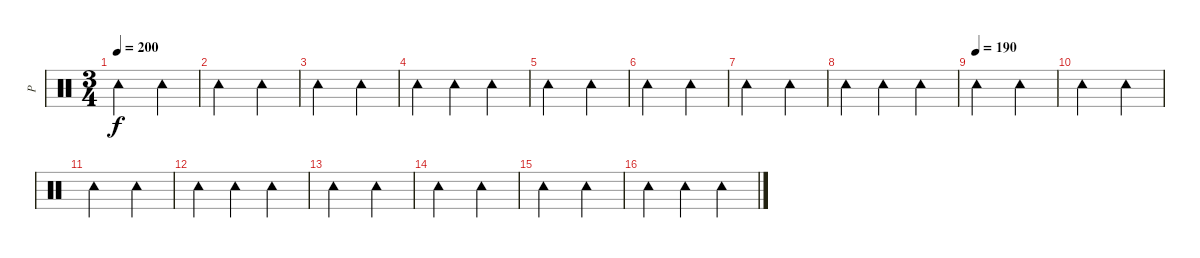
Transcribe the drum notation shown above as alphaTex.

\track ("P" "P") {instrument percussion}
\staff {score}
\articulation defaults
\ts (3 4)
\tempo 200
\clef neutral
\ks c "Tambourine (hit)".2{dy f} "Tambourine (hit)".4
|
"Tambourine (hit)".2 "Tambourine (hit)".4 |
"Tambourine (hit)".2 "Tambourine (hit)".4 |
"Tambourine (hit)".4 "Tambourine (hit)".4 "Tambourine (hit)".4 |
"Tambourine (hit)".2 "Tambourine (hit)".4 |
"Tambourine (hit)".2 "Tambourine (hit)".4 |
"Tambourine (hit)".2 "Tambourine (hit)".4 |
"Tambourine (hit)".4 "Tambourine (hit)".4 "Tambourine (hit)".4 |
\tempo (190)
"Tambourine (hit)".2 "Tambourine (hit)".4 |
"Tambourine (hit)".2 "Tambourine (hit)".4 |
"Tambourine (hit)".2 "Tambourine (hit)".4 |
"Tambourine (hit)".4 "Tambourine (hit)".4 "Tambourine (hit)".4 |
"Tambourine (hit)".2 "Tambourine (hit)".4 |
"Tambourine (hit)".2 "Tambourine (hit)".4 |
"Tambourine (hit)".2 "Tambourine (hit)".4 |
"Tambourine (hit)".4 "Tambourine (hit)".4 "Tambourine (hit)".4
